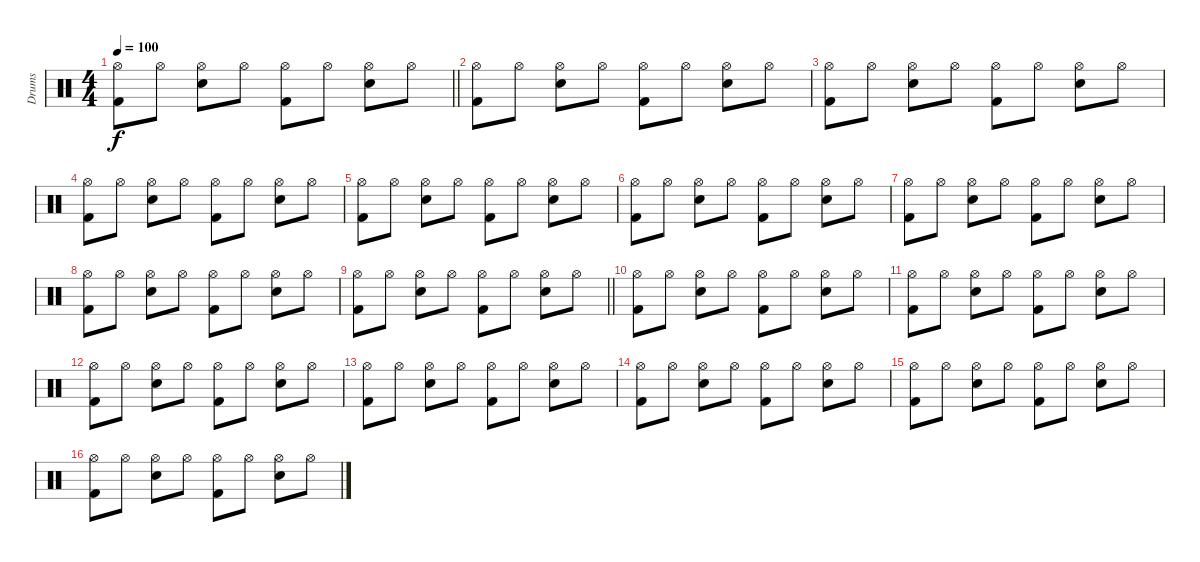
\track ("Drums" "Drums") {instrument percussion}
\staff {score}
\articulation defaults
\ts (4 4)
\tempo 100
\clef neutral
\barLineRight lightlight
\ks c
("Hi-Hat (open)" "Kick (hit) 2").8{dy f} "Hi-Hat (open)".8 ("Hi-Hat (open)" "Electric Snare (hit)").8 "Hi-Hat (open)".8 ("Hi-Hat (open)" "Kick (hit) 2").8 "Hi-Hat (open)".8 ("Hi-Hat (open)" "Electric Snare (hit)").8 "Hi-Hat (open)".8 |
("Hi-Hat (open)" "Kick (hit) 2").8 "Hi-Hat (open)".8 ("Hi-Hat (open)" "Electric Snare (hit)").8 "Hi-Hat (open)".8 ("Hi-Hat (open)" "Kick (hit) 2").8 "Hi-Hat (open)".8 ("Hi-Hat (open)" "Electric Snare (hit)").8 "Hi-Hat (open)".8 |
("Hi-Hat (open)" "Kick (hit) 2").8 "Hi-Hat (open)".8 ("Hi-Hat (open)" "Electric Snare (hit)").8 "Hi-Hat (open)".8 ("Hi-Hat (open)" "Kick (hit) 2").8 "Hi-Hat (open)".8 ("Hi-Hat (open)" "Electric Snare (hit)").8 "Hi-Hat (open)".8 |
("Hi-Hat (open)" "Kick (hit) 2").8 "Hi-Hat (open)".8 ("Hi-Hat (open)" "Electric Snare (hit)").8 "Hi-Hat (open)".8 ("Hi-Hat (open)" "Kick (hit) 2").8 "Hi-Hat (open)".8 ("Hi-Hat (open)" "Electric Snare (hit)").8 "Hi-Hat (open)".8 |
("Hi-Hat (open)" "Kick (hit) 2").8 "Hi-Hat (open)".8 ("Hi-Hat (open)" "Electric Snare (hit)").8 "Hi-Hat (open)".8 ("Hi-Hat (open)" "Kick (hit) 2").8 "Hi-Hat (open)".8 ("Hi-Hat (open)" "Electric Snare (hit)").8 "Hi-Hat (open)".8 |
("Hi-Hat (open)" "Kick (hit) 2").8 "Hi-Hat (open)".8 ("Hi-Hat (open)" "Electric Snare (hit)").8 "Hi-Hat (open)".8 ("Hi-Hat (open)" "Kick (hit) 2").8 "Hi-Hat (open)".8 ("Hi-Hat (open)" "Electric Snare (hit)").8 "Hi-Hat (open)".8 |
("Hi-Hat (open)" "Kick (hit) 2").8 "Hi-Hat (open)".8 ("Hi-Hat (open)" "Electric Snare (hit)").8 "Hi-Hat (open)".8 ("Hi-Hat (open)" "Kick (hit) 2").8 "Hi-Hat (open)".8 ("Hi-Hat (open)" "Electric Snare (hit)").8 "Hi-Hat (open)".8 |
("Hi-Hat (open)" "Kick (hit) 2").8 "Hi-Hat (open)".8 ("Hi-Hat (open)" "Electric Snare (hit)").8 "Hi-Hat (open)".8 ("Hi-Hat (open)" "Kick (hit) 2").8 "Hi-Hat (open)".8 ("Hi-Hat (open)" "Electric Snare (hit)").8 "Hi-Hat (open)".8 |
\barLineRight lightlight
("Hi-Hat (open)" "Kick (hit) 2").8 "Hi-Hat (open)".8 ("Hi-Hat (open)" "Electric Snare (hit)").8 "Hi-Hat (open)".8 ("Hi-Hat (open)" "Kick (hit) 2").8 "Hi-Hat (open)".8 ("Hi-Hat (open)" "Electric Snare (hit)").8 "Hi-Hat (open)".8 |
("Hi-Hat (open)" "Kick (hit) 2").8 "Hi-Hat (open)".8 ("Hi-Hat (open)" "Electric Snare (hit)").8 "Hi-Hat (open)".8 ("Hi-Hat (open)" "Kick (hit) 2").8 "Hi-Hat (open)".8 ("Hi-Hat (open)" "Electric Snare (hit)").8 "Hi-Hat (open)".8 |
("Hi-Hat (open)" "Kick (hit) 2").8 "Hi-Hat (open)".8 ("Hi-Hat (open)" "Electric Snare (hit)").8 "Hi-Hat (open)".8 ("Hi-Hat (open)" "Kick (hit) 2").8 "Hi-Hat (open)".8 ("Hi-Hat (open)" "Electric Snare (hit)").8 "Hi-Hat (open)".8 |
("Hi-Hat (open)" "Kick (hit) 2").8 "Hi-Hat (open)".8 ("Hi-Hat (open)" "Electric Snare (hit)").8 "Hi-Hat (open)".8 ("Hi-Hat (open)" "Kick (hit) 2").8 "Hi-Hat (open)".8 ("Hi-Hat (open)" "Electric Snare (hit)").8 "Hi-Hat (open)".8 |
("Hi-Hat (open)" "Kick (hit) 2").8 "Hi-Hat (open)".8 ("Hi-Hat (open)" "Electric Snare (hit)").8 "Hi-Hat (open)".8 ("Hi-Hat (open)" "Kick (hit) 2").8 "Hi-Hat (open)".8 ("Hi-Hat (open)" "Electric Snare (hit)").8 "Hi-Hat (open)".8 |
("Hi-Hat (open)" "Kick (hit) 2").8 "Hi-Hat (open)".8 ("Hi-Hat (open)" "Electric Snare (hit)").8 "Hi-Hat (open)".8 ("Hi-Hat (open)" "Kick (hit) 2").8 "Hi-Hat (open)".8 ("Hi-Hat (open)" "Electric Snare (hit)").8 "Hi-Hat (open)".8 |
("Hi-Hat (open)" "Kick (hit) 2").8 "Hi-Hat (open)".8 ("Hi-Hat (open)" "Electric Snare (hit)").8 "Hi-Hat (open)".8 ("Hi-Hat (open)" "Kick (hit) 2").8 "Hi-Hat (open)".8 ("Hi-Hat (open)" "Electric Snare (hit)").8 "Hi-Hat (open)".8 |
("Hi-Hat (open)" "Kick (hit) 2").8 "Hi-Hat (open)".8 ("Hi-Hat (open)" "Electric Snare (hit)").8 "Hi-Hat (open)".8 ("Hi-Hat (open)" "Kick (hit) 2").8 "Hi-Hat (open)".8 ("Hi-Hat (open)" "Electric Snare (hit)").8 "Hi-Hat (open)".8
